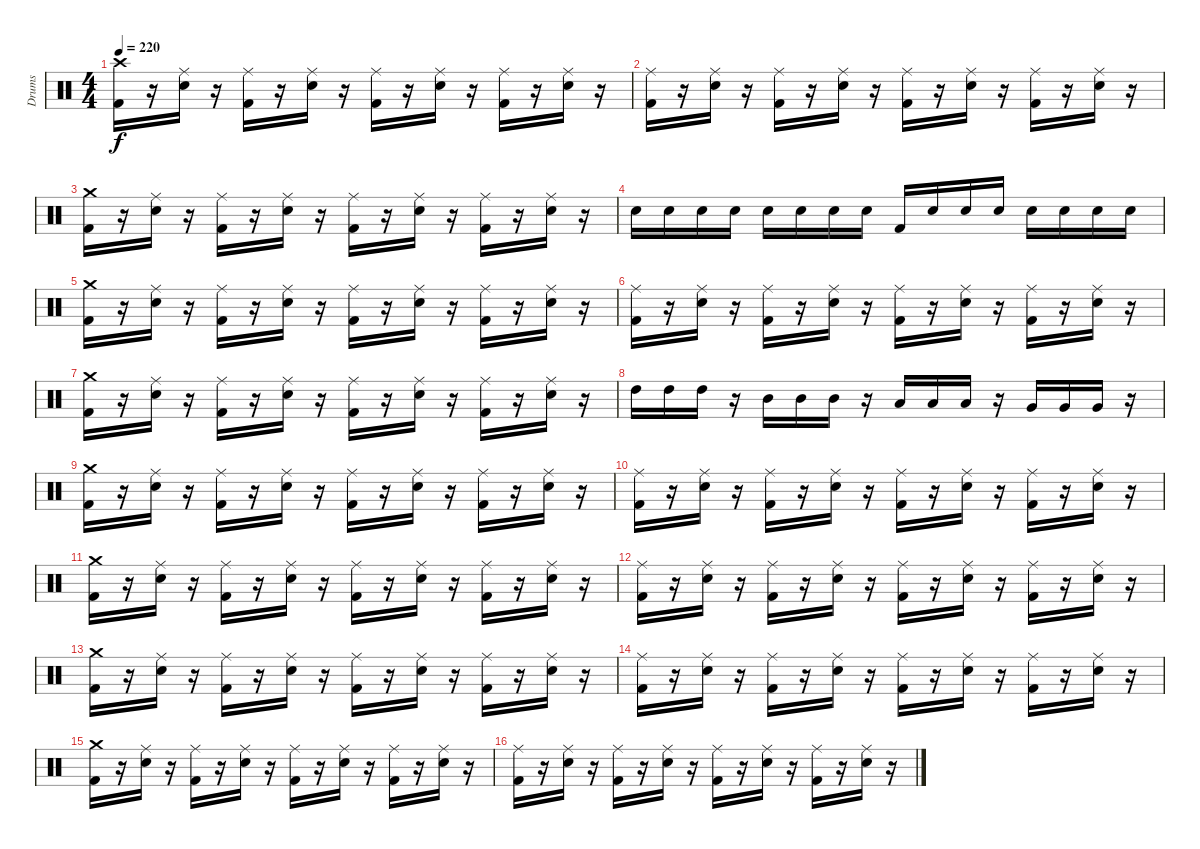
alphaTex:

\track ("Drums" "Drums") {instrument percussion}
\staff {score}
\articulation defaults
\ts (4 4)
\tempo 220
\clef neutral
\ks c
("Crash high (hit)" "Kick (hit) 2").16{dy f} r.16 ("Ride (middle)" "Electric Snare (hit)").16 r.16 ("Ride (middle)" "Kick (hit) 2").16 r.16 ("Ride (middle)" "Electric Snare (hit)").16 r.16 ("Ride (middle)" "Kick (hit) 2").16 r.16 ("Ride (middle)" "Electric Snare (hit)").16 r.16 ("Ride (middle)" "Kick (hit) 2").16 r.16 ("Ride (middle)" "Electric Snare (hit)").16 r.16 |
("Ride (middle)" "Kick (hit) 2").16 r.16 ("Ride (middle)" "Electric Snare (hit)").16 r.16 ("Ride (middle)" "Kick (hit) 2").16 r.16 ("Ride (middle)" "Electric Snare (hit)").16 r.16 ("Ride (middle)" "Kick (hit) 2").16 r.16 ("Ride (middle)" "Electric Snare (hit)").16 r.16 ("Ride (middle)" "Kick (hit) 2").16 r.16 ("Ride (middle)" "Electric Snare (hit)").16 r.16 |
("Crash medium (hit)" "Kick (hit) 2").16 r.16 ("Ride (middle)" "Electric Snare (hit)").16 r.16 ("Ride (middle)" "Kick (hit) 2").16 r.16 ("Ride (middle)" "Electric Snare (hit)").16 r.16 ("Ride (middle)" "Kick (hit) 2").16 r.16 ("Ride (middle)" "Electric Snare (hit)").16 r.16 ("Ride (middle)" "Kick (hit) 2").16 r.16 ("Ride (middle)" "Electric Snare (hit)").16 r.16 |
"Electric Snare (hit)".16 "Electric Snare (hit)".16 "Electric Snare (hit)".16 "Electric Snare (hit)".16 "Electric Snare (hit)".16 "Electric Snare (hit)".16 "Electric Snare (hit)".16 "Electric Snare (hit)".16 "Kick (hit) 2".16 "Electric Snare (hit)".16 "Electric Snare (hit)".16 "Electric Snare (hit)".16 "Electric Snare (hit)".16 "Electric Snare (hit)".16 "Electric Snare (hit)".16 "Electric Snare (hit)".16 |
("Crash medium (hit)" "Kick (hit) 2").16 r.16 ("Ride (middle)" "Electric Snare (hit)").16 r.16 ("Ride (middle)" "Kick (hit) 2").16 r.16 ("Ride (middle)" "Electric Snare (hit)").16 r.16 ("Ride (middle)" "Kick (hit) 2").16 r.16 ("Ride (middle)" "Electric Snare (hit)").16 r.16 ("Ride (middle)" "Kick (hit) 2").16 r.16 ("Ride (middle)" "Electric Snare (hit)").16 r.16 |
("Ride (middle)" "Kick (hit) 2").16 r.16 ("Ride (middle)" "Electric Snare (hit)").16 r.16 ("Ride (middle)" "Kick (hit) 2").16 r.16 ("Ride (middle)" "Electric Snare (hit)").16 r.16 ("Ride (middle)" "Kick (hit) 2").16 r.16 ("Ride (middle)" "Electric Snare (hit)").16 r.16 ("Ride (middle)" "Kick (hit) 2").16 r.16 ("Ride (middle)" "Electric Snare (hit)").16 r.16 |
("Crash medium (hit)" "Kick (hit) 2").16 r.16 ("Ride (middle)" "Electric Snare (hit)").16 r.16 ("Ride (middle)" "Kick (hit) 2").16 r.16 ("Ride (middle)" "Electric Snare (hit)").16 r.16 ("Ride (middle)" "Kick (hit) 2").16 r.16 ("Ride (middle)" "Electric Snare (hit)").16 r.16 ("Ride (middle)" "Kick (hit) 2").16 r.16 ("Ride (middle)" "Electric Snare (hit)").16 r.16 |
"High Tom (hit)".16 "High Tom (hit)".16 "High Tom (hit)".16 r.16 "Mid Tom (hit)".16 "Mid Tom (hit)".16 "Mid Tom (hit)".16 r.16 "Low Tom (hit)".16 "Low Tom (hit)".16 "Low Tom (hit)".16 r.16 "Very Low Tom (hit)".16 "Very Low Tom (hit)".16 "Very Low Tom (hit)".16 r.16 |
("Crash medium (hit)" "Kick (hit) 2").16 r.16 ("Ride (middle)" "Electric Snare (hit)").16 r.16 ("Ride (middle)" "Kick (hit) 2").16 r.16 ("Ride (middle)" "Electric Snare (hit)").16 r.16 ("Ride (middle)" "Kick (hit) 2").16 r.16 ("Ride (middle)" "Electric Snare (hit)").16 r.16 ("Ride (middle)" "Kick (hit) 2").16 r.16 ("Ride (middle)" "Electric Snare (hit)").16 r.16 |
("Ride (middle)" "Kick (hit) 2").16 r.16 ("Ride (middle)" "Electric Snare (hit)").16 r.16 ("Ride (middle)" "Kick (hit) 2").16 r.16 ("Ride (middle)" "Electric Snare (hit)").16 r.16 ("Ride (middle)" "Kick (hit) 2").16 r.16 ("Ride (middle)" "Electric Snare (hit)").16 r.16 ("Ride (middle)" "Kick (hit) 2").16 r.16 ("Ride (middle)" "Electric Snare (hit)").16 r.16 |
("Crash medium (hit)" "Kick (hit) 2").16 r.16 ("Ride (middle)" "Electric Snare (hit)").16 r.16 ("Ride (middle)" "Kick (hit) 2").16 r.16 ("Ride (middle)" "Electric Snare (hit)").16 r.16 ("Ride (middle)" "Kick (hit) 2").16 r.16 ("Ride (middle)" "Electric Snare (hit)").16 r.16 ("Ride (middle)" "Kick (hit) 2").16 r.16 ("Ride (middle)" "Electric Snare (hit)").16 r.16 |
("Ride (middle)" "Kick (hit) 2").16 r.16 ("Ride (middle)" "Electric Snare (hit)").16 r.16 ("Ride (middle)" "Kick (hit) 2").16 r.16 ("Ride (middle)" "Electric Snare (hit)").16 r.16 ("Ride (middle)" "Kick (hit) 2").16 r.16 ("Ride (middle)" "Electric Snare (hit)").16 r.16 ("Ride (middle)" "Kick (hit) 2").16 r.16 ("Ride (middle)" "Electric Snare (hit)").16 r.16 |
("Crash medium (hit)" "Kick (hit) 2").16 r.16 ("Ride (middle)" "Electric Snare (hit)").16 r.16 ("Ride (middle)" "Kick (hit) 2").16 r.16 ("Ride (middle)" "Electric Snare (hit)").16 r.16 ("Ride (middle)" "Kick (hit) 2").16 r.16 ("Ride (middle)" "Electric Snare (hit)").16 r.16 ("Ride (middle)" "Kick (hit) 2").16 r.16 ("Ride (middle)" "Electric Snare (hit)").16 r.16 |
("Ride (middle)" "Kick (hit) 2").16 r.16 ("Ride (middle)" "Electric Snare (hit)").16 r.16 ("Ride (middle)" "Kick (hit) 2").16 r.16 ("Ride (middle)" "Electric Snare (hit)").16 r.16 ("Ride (middle)" "Kick (hit) 2").16 r.16 ("Ride (middle)" "Electric Snare (hit)").16 r.16 ("Ride (middle)" "Kick (hit) 2").16 r.16 ("Ride (middle)" "Electric Snare (hit)").16 r.16 |
("Crash medium (hit)" "Kick (hit) 2").16 r.16 ("Ride (middle)" "Electric Snare (hit)").16 r.16 ("Ride (middle)" "Kick (hit) 2").16 r.16 ("Ride (middle)" "Electric Snare (hit)").16 r.16 ("Ride (middle)" "Kick (hit) 2").16 r.16 ("Ride (middle)" "Electric Snare (hit)").16 r.16 ("Ride (middle)" "Kick (hit) 2").16 r.16 ("Ride (middle)" "Electric Snare (hit)").16 r.16 |
("Ride (middle)" "Kick (hit) 2").16 r.16 ("Ride (middle)" "Electric Snare (hit)").16 r.16 ("Ride (middle)" "Kick (hit) 2").16 r.16 ("Ride (middle)" "Electric Snare (hit)").16 r.16 ("Ride (middle)" "Kick (hit) 2").16 r.16 ("Ride (middle)" "Electric Snare (hit)").16 r.16 ("Ride (middle)" "Kick (hit) 2").16 r.16 ("Ride (middle)" "Electric Snare (hit)").16 r.16
